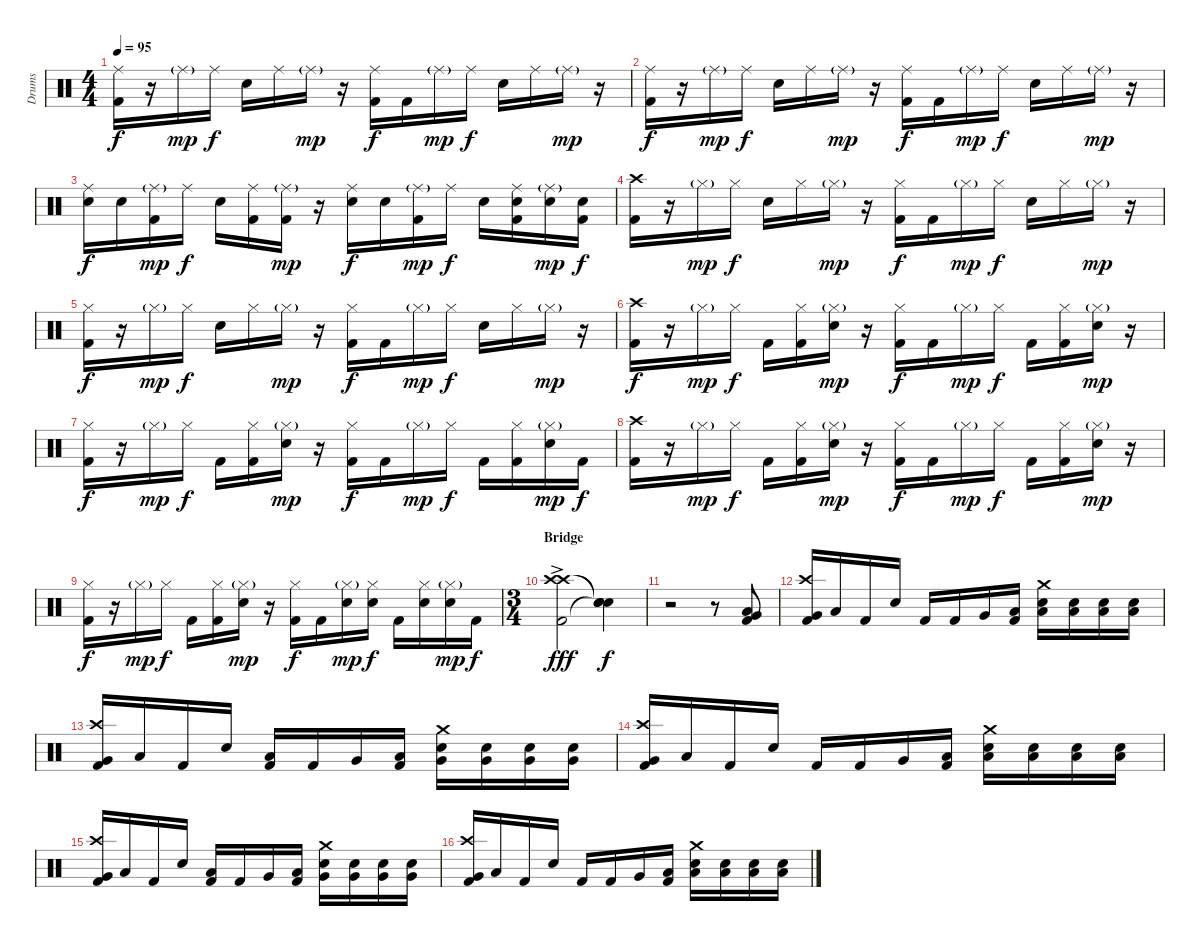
\track ("Drums" "Drums") {instrument percussion}
\staff {score}
\articulation defaults
\ts (4 4)
\tempo 95
\clef neutral
\ks c
("Ride (middle)" "Kick (hit) 2").16{dy f} r.16 "Ride (middle)"{g}.16{dy mp} "Ride (middle)".16{dy f} "Electric Snare (hit)".16 "Ride (middle)".16 "Ride (middle)"{g}.16{dy mp} r.16 ("Ride (middle)" "Kick (hit) 2").16{dy f} "Kick (hit) 2".16 "Ride (middle)"{g}.16{dy mp} "Ride (middle)".16{dy f} "Electric Snare (hit)".16 "Ride (middle)".16 "Ride (middle)"{g}.16{dy mp} r.16 |
("Ride (middle)" "Kick (hit) 2").16{dy f} r.16 "Ride (middle)"{g}.16{dy mp} "Ride (middle)".16{dy f} "Electric Snare (hit)".16 "Ride (middle)".16 "Ride (middle)"{g}.16{dy mp} r.16 ("Ride (middle)" "Kick (hit) 2").16{dy f} "Kick (hit) 2".16 "Ride (middle)"{g}.16{dy mp} "Ride (middle)".16{dy f} "Electric Snare (hit)".16 "Ride (middle)".16 "Ride (middle)"{g}.16{dy mp} r.16 |
("Ride (middle)" "Electric Snare (hit)").16{dy f} "Electric Snare (hit)".16 ("Ride (middle)"{g} "Kick (hit) 2").16{dy mp} "Ride (middle)".16{dy f} "Electric Snare (hit)".16 ("Ride (middle)" "Kick (hit) 2").16 ("Ride (middle)"{g} "Kick (hit) 2").16{dy mp} r.16 ("Ride (middle)" "Electric Snare (hit)").16{dy f} "Electric Snare (hit)".16 ("Ride (middle)"{g} "Kick (hit) 2").16{dy mp} "Ride (middle)".16{dy f} "Electric Snare (hit)".16 ("Ride (middle)" "Electric Snare (hit)" "Kick (hit) 2").16 ("Ride (middle)"{g} "Electric Snare (hit)").16{dy mp} ("Electric Snare (hit)" "Kick (hit) 2").16{dy f} |
("Crash high (hit)" "Kick (hit) 2").16 r.16 "Hi-Hat (closed)"{g}.16{dy mp} "Hi-Hat (closed)".16{dy f} "Electric Snare (hit)".16 "Hi-Hat (closed)".16 "Hi-Hat (closed)"{g}.16{dy mp} r.16 ("Hi-Hat (closed)" "Kick (hit) 2").16{dy f} "Kick (hit) 2".16 "Hi-Hat (closed)"{g}.16{dy mp} "Hi-Hat (closed)".16{dy f} "Electric Snare (hit)".16 "Hi-Hat (closed)".16 "Hi-Hat (closed)"{g}.16{dy mp} r.16 |
("Hi-Hat (closed)" "Kick (hit) 2").16{dy f} r.16 "Hi-Hat (closed)"{g}.16{dy mp} "Hi-Hat (closed)".16{dy f} "Electric Snare (hit)".16 "Hi-Hat (closed)".16 "Hi-Hat (closed)"{g}.16{dy mp} r.16 ("Hi-Hat (closed)" "Kick (hit) 2").16{dy f} "Kick (hit) 2".16 "Hi-Hat (closed)"{g}.16{dy mp} "Hi-Hat (closed)".16{dy f} "Electric Snare (hit)".16 "Hi-Hat (closed)".16 "Hi-Hat (closed)"{g}.16{dy mp} r.16 |
("Crash high (hit)" "Kick (hit) 2").16{dy f} r.16 "Hi-Hat (closed)"{g}.16{dy mp} "Hi-Hat (closed)".16{dy f} "Kick (hit) 2".16 ("Hi-Hat (closed)" "Kick (hit) 2").16 ("Hi-Hat (closed)"{g} "Electric Snare (hit)").16{dy mp} r.16 ("Hi-Hat (closed)" "Kick (hit) 2").16{dy f} "Kick (hit) 2".16 "Hi-Hat (closed)"{g}.16{dy mp} "Hi-Hat (closed)".16{dy f} "Kick (hit) 2".16 ("Hi-Hat (closed)" "Kick (hit) 2").16 ("Hi-Hat (closed)"{g} "Electric Snare (hit)").16{dy mp} r.16 |
("Hi-Hat (closed)" "Kick (hit) 2").16{dy f} r.16 "Hi-Hat (closed)"{g}.16{dy mp} "Hi-Hat (closed)".16{dy f} "Kick (hit) 2".16 ("Hi-Hat (closed)" "Kick (hit) 2").16 ("Hi-Hat (closed)"{g} "Electric Snare (hit)").16{dy mp} r.16 ("Hi-Hat (closed)" "Kick (hit) 2").16{dy f} "Kick (hit) 2".16 "Hi-Hat (closed)"{g}.16{dy mp} "Hi-Hat (closed)".16{dy f} "Kick (hit) 2".16 ("Hi-Hat (closed)" "Kick (hit) 2").16 ("Hi-Hat (closed)"{g} "Electric Snare (hit)").16{dy mp} "Kick (hit) 2".16{dy f} |
("Crash high (hit)" "Kick (hit) 2").16 r.16 "Hi-Hat (closed)"{g}.16{dy mp} "Hi-Hat (closed)".16{dy f} "Kick (hit) 2".16 ("Hi-Hat (closed)" "Kick (hit) 2").16 ("Hi-Hat (closed)"{g} "Electric Snare (hit)").16{dy mp} r.16 ("Hi-Hat (closed)" "Kick (hit) 2").16{dy f} "Kick (hit) 2".16 "Hi-Hat (closed)"{g}.16{dy mp} "Hi-Hat (closed)".16{dy f} "Kick (hit) 2".16 ("Hi-Hat (closed)" "Kick (hit) 2").16 ("Hi-Hat (closed)"{g} "Electric Snare (hit)").16{dy mp} r.16 |
("Hi-Hat (closed)" "Kick (hit) 2").16{dy f} r.16 "Hi-Hat (closed)"{g}.16{dy mp} "Hi-Hat (closed)".16{dy f} "Kick (hit) 2".16 ("Hi-Hat (closed)" "Kick (hit) 2").16 ("Hi-Hat (closed)"{g} "Electric Snare (hit)").16{dy mp} r.16 ("Hi-Hat (closed)" "Kick (hit) 2").16{dy f} "Kick (hit) 2".16 ("Hi-Hat (closed)"{g} "Electric Snare (hit)").16{dy mp} ("Hi-Hat (closed)" "Electric Snare (hit)").16{dy f} "Kick (hit) 2".16 ("Hi-Hat (closed)" "Electric Snare (hit)").16 ("Hi-Hat (closed)"{g} "Electric Snare (hit)").16{dy mp} "Kick (hit) 2".16{dy f} |
\ts (3 4)
\section ("" "Bridge")
("Crash high (hit)"{ac} "Crash high (hit)"{ac} "Kick (hit) 2").2{dy fff} ("Snare (hit)"{t} "Snare (hit)"{t} "Snare (hit)"{t}).4{dy f} |
r.2 r.8 ("Very Low Tom (hit)" "Low Floor Tom (hit)" "Kick (hit) 2").8 |
("Crash high (hit)" "Very Low Tom (hit)" "Kick (hit) 2").16 "Low Floor Tom (hit)".16 "Kick (hit) 2".16 "Electric Snare (hit)".16 "Kick (hit) 2".16 "Kick (hit) 2".16 "Very Low Tom (hit)".16 ("Low Floor Tom (hit)" "Kick (hit) 2").16 ("Crash medium (hit)" "Electric Snare (hit)" "Low Tom (hit)").16 ("Electric Snare (hit)" "Low Tom (hit)").16 ("Electric Snare (hit)" "Low Tom (hit)").16 ("Electric Snare (hit)" "Low Tom (hit)").16 |
("Crash high (hit)" "Very Low Tom (hit)" "Kick (hit) 2").16 "Low Floor Tom (hit)".16 "Kick (hit) 2".16 "Electric Snare (hit)".16 ("Low Floor Tom (hit)" "Kick (hit) 2").16 "Kick (hit) 2".16 "Very Low Tom (hit)".16 ("Low Floor Tom (hit)" "Kick (hit) 2").16 ("Crash medium (hit)" "Electric Snare (hit)" "Very Low Tom (hit)").16 ("Electric Snare (hit)" "Very Low Tom (hit)").16 ("Electric Snare (hit)" "Very Low Tom (hit)").16 ("Electric Snare (hit)" "Very Low Tom (hit)").16 |
("Crash high (hit)" "Very Low Tom (hit)" "Kick (hit) 2").16 "Low Floor Tom (hit)".16 "Kick (hit) 2".16 "Electric Snare (hit)".16 "Kick (hit) 2".16 "Kick (hit) 2".16 "Very Low Tom (hit)".16 ("Low Floor Tom (hit)" "Kick (hit) 2").16 ("Crash medium (hit)" "Electric Snare (hit)" "Low Tom (hit)").16 ("Electric Snare (hit)" "Low Tom (hit)").16 ("Electric Snare (hit)" "Low Tom (hit)").16 ("Electric Snare (hit)" "Low Tom (hit)").16 |
("Crash high (hit)" "Very Low Tom (hit)" "Kick (hit) 2").16 "Low Floor Tom (hit)".16 "Kick (hit) 2".16 "Electric Snare (hit)".16 ("Low Floor Tom (hit)" "Kick (hit) 2").16 "Kick (hit) 2".16 "Very Low Tom (hit)".16 ("Low Floor Tom (hit)" "Kick (hit) 2").16 ("Crash medium (hit)" "Electric Snare (hit)" "Very Low Tom (hit)").16 ("Electric Snare (hit)" "Very Low Tom (hit)").16 ("Electric Snare (hit)" "Very Low Tom (hit)").16 ("Electric Snare (hit)" "Very Low Tom (hit)").16 |
("Crash high (hit)" "Very Low Tom (hit)" "Kick (hit) 2").16 "Low Floor Tom (hit)".16 "Kick (hit) 2".16 "Electric Snare (hit)".16 "Kick (hit) 2".16 "Kick (hit) 2".16 "Very Low Tom (hit)".16 ("Low Floor Tom (hit)" "Kick (hit) 2").16 ("Crash medium (hit)" "Electric Snare (hit)" "Low Tom (hit)").16 ("Electric Snare (hit)" "Low Tom (hit)").16 ("Electric Snare (hit)" "Low Tom (hit)").16 ("Electric Snare (hit)" "Low Tom (hit)").16
